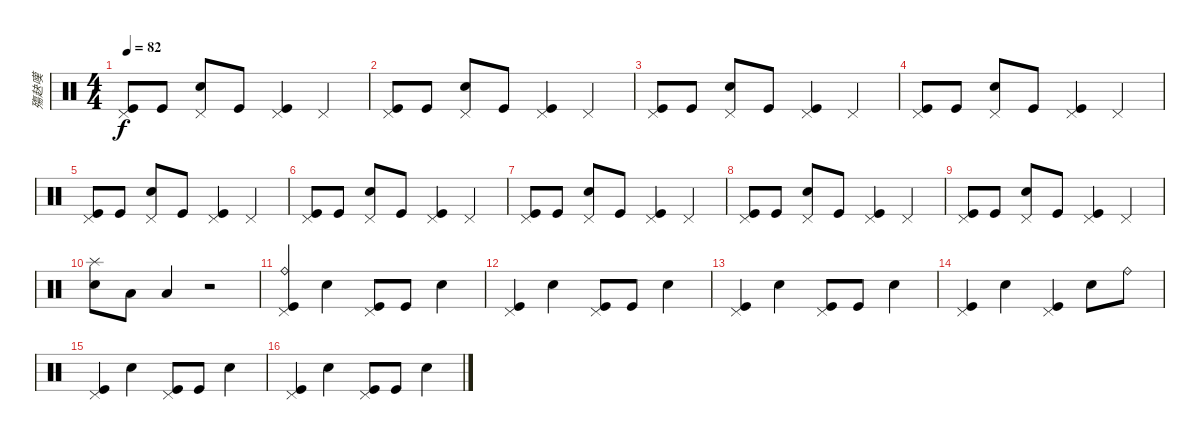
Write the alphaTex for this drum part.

\track ("殤赽嘆" "殤赽嘆") {instrument percussion}
\staff {score}
\articulation defaults
\ts (4 4)
\tempo 82
\clef neutral
\ks c
("Pedal Hi-Hat (hit)" "Kick (hit)").8{dy f} "Kick (hit)".8 ("Pedal Hi-Hat (hit)" "Snare (hit) 2").8 "Kick (hit)".8 ("Pedal Hi-Hat (hit)" "Kick (hit)").4 "Pedal Hi-Hat (hit)".4 |
("Pedal Hi-Hat (hit)" "Kick (hit)").8 "Kick (hit)".8 ("Pedal Hi-Hat (hit)" "Snare (hit) 2").8 "Kick (hit)".8 ("Pedal Hi-Hat (hit)" "Kick (hit)").4 "Pedal Hi-Hat (hit)".4 |
("Pedal Hi-Hat (hit)" "Kick (hit)").8 "Kick (hit)".8 ("Pedal Hi-Hat (hit)" "Snare (hit) 2").8 "Kick (hit)".8 ("Pedal Hi-Hat (hit)" "Kick (hit)").4 "Pedal Hi-Hat (hit)".4 |
("Pedal Hi-Hat (hit)" "Kick (hit)").8 "Kick (hit)".8 ("Pedal Hi-Hat (hit)" "Snare (hit) 2").8 "Kick (hit)".8 ("Pedal Hi-Hat (hit)" "Kick (hit)").4 "Pedal Hi-Hat (hit)".4 |
("Pedal Hi-Hat (hit)" "Kick (hit)").8 "Kick (hit)".8 ("Pedal Hi-Hat (hit)" "Snare (hit) 2").8 "Kick (hit)".8 ("Pedal Hi-Hat (hit)" "Kick (hit)").4 "Pedal Hi-Hat (hit)".4 |
("Pedal Hi-Hat (hit)" "Kick (hit)").8 "Kick (hit)".8 ("Pedal Hi-Hat (hit)" "Snare (hit) 2").8 "Kick (hit)".8 ("Pedal Hi-Hat (hit)" "Kick (hit)").4 "Pedal Hi-Hat (hit)".4 |
("Pedal Hi-Hat (hit)" "Kick (hit)").8 "Kick (hit)".8 ("Pedal Hi-Hat (hit)" "Snare (hit) 2").8 "Kick (hit)".8 ("Pedal Hi-Hat (hit)" "Kick (hit)").4 "Pedal Hi-Hat (hit)".4 |
("Pedal Hi-Hat (hit)" "Kick (hit)").8 "Kick (hit)".8 ("Pedal Hi-Hat (hit)" "Snare (hit) 2").8 "Kick (hit)".8 ("Pedal Hi-Hat (hit)" "Kick (hit)").4 "Pedal Hi-Hat (hit)".4 |
("Pedal Hi-Hat (hit)" "Kick (hit)").8 "Kick (hit)".8 ("Pedal Hi-Hat (hit)" "Snare (hit) 2").8 "Kick (hit)".8 ("Pedal Hi-Hat (hit)" "Kick (hit)").4 "Pedal Hi-Hat (hit)".4 |
("Splash (hit)" "Snare (hit) 2").8 "Low Tom (hit)".8 "Low Tom (hit)".4 r.2 |
("Pedal Hi-Hat (hit)" "Kick (hit)" "Ride (bell)").4 "Snare (hit) 2".4 ("Pedal Hi-Hat (hit)" "Kick (hit)").8 "Kick (hit)".8 "Snare (hit) 2".4 |
("Pedal Hi-Hat (hit)" "Kick (hit)").4 "Snare (hit) 2".4 ("Pedal Hi-Hat (hit)" "Kick (hit)").8 "Kick (hit)".8 "Snare (hit) 2".4 |
("Pedal Hi-Hat (hit)" "Kick (hit)").4 "Snare (hit) 2".4 ("Pedal Hi-Hat (hit)" "Kick (hit)").8 "Kick (hit)".8 "Snare (hit) 2".4 |
("Pedal Hi-Hat (hit)" "Kick (hit)").4 "Snare (hit) 2".4 ("Pedal Hi-Hat (hit)" "Kick (hit)").4 "Snare (hit) 2".8 "Ride (bell)".8 |
("Pedal Hi-Hat (hit)" "Kick (hit)").4 "Snare (hit) 2".4 ("Pedal Hi-Hat (hit)" "Kick (hit)").8 "Kick (hit)".8 "Snare (hit) 2".4 |
("Pedal Hi-Hat (hit)" "Kick (hit)").4 "Snare (hit) 2".4 ("Pedal Hi-Hat (hit)" "Kick (hit)").8 "Kick (hit)".8 "Snare (hit) 2".4
